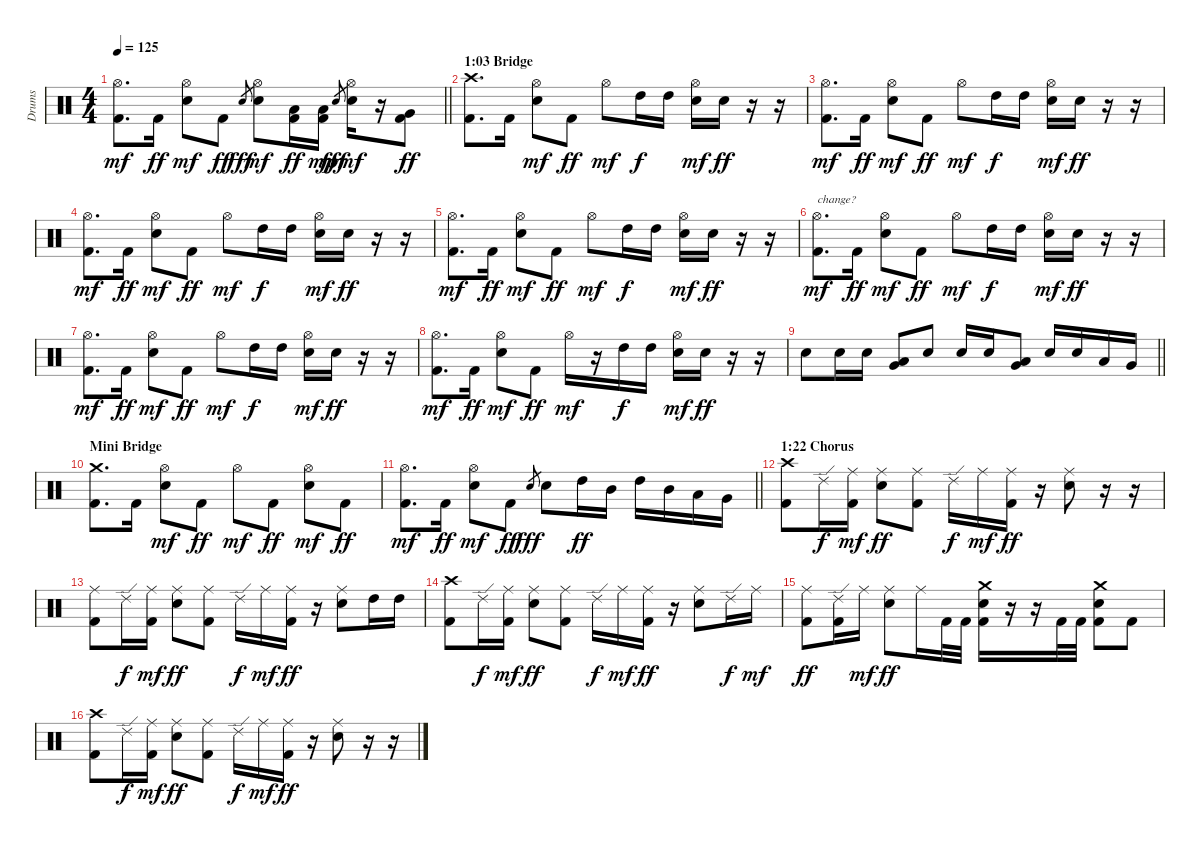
\track ("Drums" "Drums") {instrument percussion}
\staff {score}
\articulation defaults
\ts (4 4)
\tempo 125
\clef neutral
\barLineRight lightlight
\ks c
("Kick (hit) 2" "Hi-Hat (open)").8{d dy mf} "Kick (hit) 2".16{dy ff} ("Electric Snare (hit)" "Hi-Hat (open)").8{dy mf} "Kick (hit) 2".8{dy ff} "Electric Snare (hit)".8{gr dy fff} ("Electric Snare (hit)" "Hi-Hat (open)").8{dy mf} ("Kick (hit) 2" "Low Tom (hit)").16{dy ff} ("Kick (hit) 2" "Low Tom (hit)").16{dy mp} "Electric Snare (hit)".8{gr dy fff} ("Electric Snare (hit)" "Hi-Hat (open)").16{dy mf} r.16 ("Kick (hit) 2" "Very Low Tom (hit)").8{dy ff} |
\section ("" "1:03 Bridge")
("Kick (hit) 2" "Crash high (hit)").8{d} "Kick (hit) 2".16 ("Electric Snare (hit)" "Hi-Hat (open)").8{dy mf} "Kick (hit) 2".8{dy ff} "Hi-Hat (open)".8{dy mf} "High Tom (hit)".16{dy f} "High Tom (hit)".16 ("Electric Snare (hit)" "Hi-Hat (open)").16{dy mf} "Electric Snare (hit)".16{dy ff} r.16 r.16 |
("Kick (hit) 2" "Hi-Hat (open)").8{d dy mf} "Kick (hit) 2".16{dy ff} ("Electric Snare (hit)" "Hi-Hat (open)").8{dy mf} "Kick (hit) 2".8{dy ff} "Hi-Hat (open)".8{dy mf} "High Tom (hit)".16{dy f} "High Tom (hit)".16 ("Electric Snare (hit)" "Hi-Hat (open)").16{dy mf} "Electric Snare (hit)".16{dy ff} r.16 r.16 |
("Kick (hit) 2" "Hi-Hat (open)").8{d dy mf} "Kick (hit) 2".16{dy ff} ("Electric Snare (hit)" "Hi-Hat (open)").8{dy mf} "Kick (hit) 2".8{dy ff} "Hi-Hat (open)".8{dy mf} "High Tom (hit)".16{dy f} "High Tom (hit)".16 ("Electric Snare (hit)" "Hi-Hat (open)").16{dy mf} "Electric Snare (hit)".16{dy ff} r.16 r.16 |
("Kick (hit) 2" "Hi-Hat (open)").8{d dy mf} "Kick (hit) 2".16{dy ff} ("Electric Snare (hit)" "Hi-Hat (open)").8{dy mf} "Kick (hit) 2".8{dy ff} "Hi-Hat (open)".8{dy mf} "High Tom (hit)".16{dy f} "High Tom (hit)".16 ("Electric Snare (hit)" "Hi-Hat (open)").16{dy mf} "Electric Snare (hit)".16{dy ff} r.16 r.16 |
("Kick (hit) 2" "Hi-Hat (open)").8{d txt "change?" dy mf} "Kick (hit) 2".16{dy ff} ("Electric Snare (hit)" "Hi-Hat (open)").8{dy mf} "Kick (hit) 2".8{dy ff} "Hi-Hat (open)".8{dy mf} "High Tom (hit)".16{dy f} "High Tom (hit)".16 ("Electric Snare (hit)" "Hi-Hat (open)").16{dy mf} "Electric Snare (hit)".16{dy ff} r.16 r.16 |
("Kick (hit) 2" "Hi-Hat (open)").8{d dy mf} "Kick (hit) 2".16{dy ff} ("Electric Snare (hit)" "Hi-Hat (open)").8{dy mf} "Kick (hit) 2".8{dy ff} "Hi-Hat (open)".8{dy mf} "High Tom (hit)".16{dy f} "High Tom (hit)".16 ("Electric Snare (hit)" "Hi-Hat (open)").16{dy mf} "Electric Snare (hit)".16{dy ff} r.16 r.16 |
("Kick (hit) 2" "Hi-Hat (open)").8{d dy mf} "Kick (hit) 2".16{dy ff} ("Electric Snare (hit)" "Hi-Hat (open)").8{dy mf} "Kick (hit) 2".8{dy ff} "Hi-Hat (open)".16{dy mf} r.16 "High Tom (hit)".16{dy f} "High Tom (hit)".16 ("Electric Snare (hit)" "Hi-Hat (open)").16{dy mf} "Electric Snare (hit)".16{dy ff} r.16 r.16 |
\barLineRight lightlight "Electric Snare (hit)".8 "Electric Snare (hit)".16 "Electric Snare (hit)".16
("Low Tom (hit)" "Very Low Tom (hit)").8 "Electric Snare (hit)".8 "Electric Snare (hit)".16 "Electric Snare (hit)".16 ("Low Tom (hit)" "Very Low Tom (hit)").8 "Electric Snare (hit)".16 "Electric Snare (hit)".16 "Low Tom (hit)".16 "Very Low Tom (hit)".16 |
\section ("" "Mini Bridge")
("Kick (hit) 2" "Crash medium (hit)").8{d} "Kick (hit) 2".16 ("Electric Snare (hit)" "Hi-Hat (open)").8{dy mf} "Kick (hit) 2".8{dy ff} "Hi-Hat (open)".8{dy mf} "Kick (hit) 2".8{dy ff} ("Electric Snare (hit)" "Hi-Hat (open)").8{dy mf} "Kick (hit) 2".8{dy ff} |
\barLineRight lightlight
("Kick (hit) 2" "Hi-Hat (open)").8{d dy mf} "Kick (hit) 2".16{dy ff} ("Electric Snare (hit)" "Hi-Hat (open)").8{dy mf} "Kick (hit) 2".8{dy ff} "Electric Snare (hit)".8{gr dy fff} "Electric Snare (hit)".8 "High Tom (hit)".16{dy ff} "Mid Tom (hit)".16 "High Tom (hit)".16 "Mid Tom (hit)".16 "Low Tom (hit)".16 "Very Low Tom (hit)".16 |
\section ("" "1:22 Chorus")
("Kick (hit) 2" "Crash high (hit)").8 "Ride (edge) 2".16{dy f} ("Kick (hit) 2" "Ride (middle)").16{dy mf} ("Electric Snare (hit)" "Ride (middle)").8{dy ff} ("Kick (hit) 2" "Ride (middle)").8 "Ride (edge) 2".16{dy f} "Ride (middle)".16{dy mf} ("Kick (hit) 2" "Ride (middle)").16{dy ff} r.16 ("Electric Snare (hit)" "Ride (middle)").8 r.16 r.16 |
("Kick (hit) 2" "Ride (middle)").8 "Ride (edge) 2".16{dy f} ("Kick (hit) 2" "Ride (middle)").16{dy mf} ("Electric Snare (hit)" "Ride (middle)").8{dy ff} ("Kick (hit) 2" "Ride (middle)").8 "Ride (edge) 2".16{dy f} "Ride (middle)".16{dy mf} ("Kick (hit) 2" "Ride (middle)").16{dy ff} r.16 ("Electric Snare (hit)" "Ride (middle)").8 "High Tom (hit)".16 "High Tom (hit)".16 |
("Kick (hit) 2" "Crash high (hit)").8 "Ride (edge) 2".16{dy f} ("Kick (hit) 2" "Ride (middle)").16{dy mf} ("Electric Snare (hit)" "Ride (middle)").8{dy ff} ("Kick (hit) 2" "Ride (middle)").8 "Ride (edge) 2".16{dy f} "Ride (middle)".16{dy mf} ("Kick (hit) 2" "Ride (middle)").16{dy ff} r.16 ("Electric Snare (hit)" "Ride (middle)").8 "Ride (edge) 2".16{dy f} "Ride (middle)".16{dy mf} |
("Kick (hit) 2" "Ride (middle)").8{dy ff} ("Kick (hit) 2" "Ride (edge) 2").16 "Ride (middle)".16{dy mf} ("Electric Snare (hit)" "Ride (middle)").8{dy ff} "Ride (middle)".16 "Kick (hit) 2".32 "Kick (hit) 2".32 ("Kick (hit) 2" "Electric Snare (hit)" "Crash medium (hit)").16 r.16 r.16 "Kick (hit) 2".32 "Kick (hit) 2".32 ("Kick (hit) 2" "Electric Snare (hit)" "Crash medium (hit)").8 "Kick (hit) 2".8 |
("Kick (hit) 2" "Crash high (hit)").8 "Ride (edge) 2".16{dy f} ("Kick (hit) 2" "Ride (middle)").16{dy mf} ("Electric Snare (hit)" "Ride (middle)").8{dy ff} ("Kick (hit) 2" "Ride (middle)").8 "Ride (edge) 2".16{dy f} "Ride (middle)".16{dy mf} ("Kick (hit) 2" "Ride (middle)").16{dy ff} r.16 ("Electric Snare (hit)" "Ride (middle)").8 r.16 r.16
